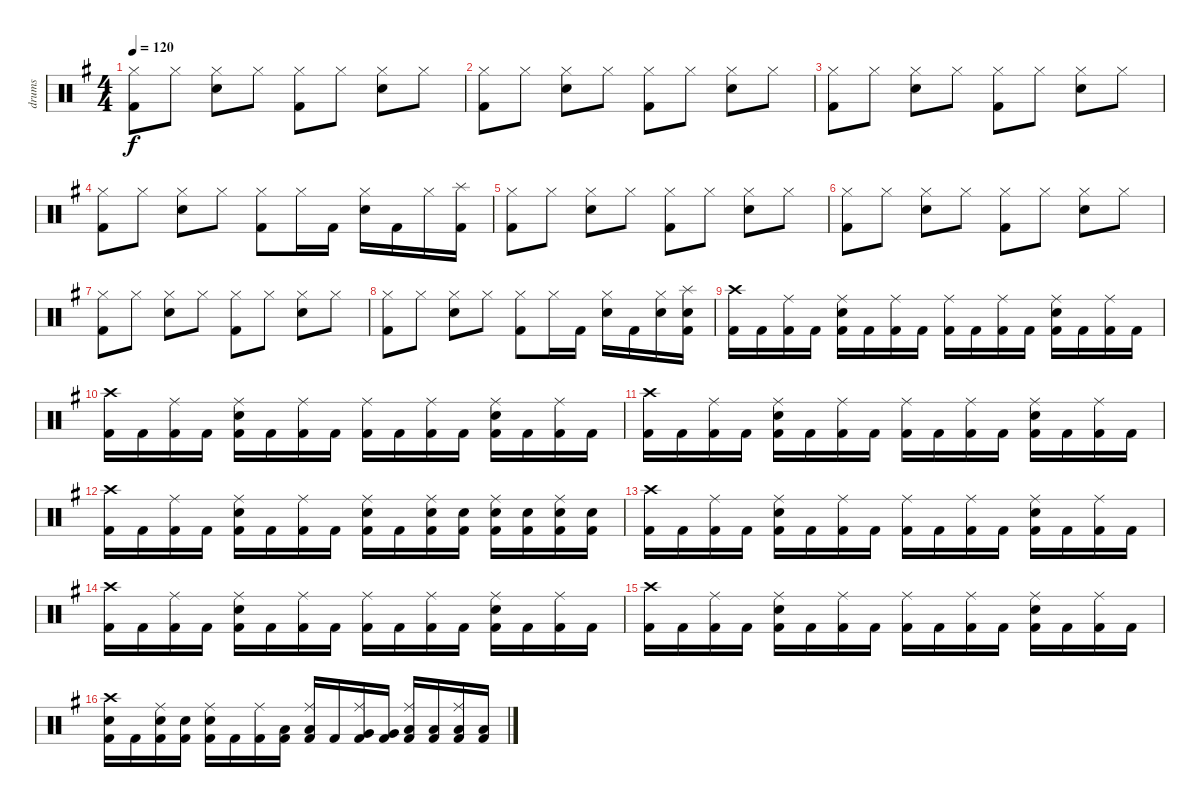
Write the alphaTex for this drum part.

\track ("drums" "drums") {instrument percussion}
\staff {score}
\articulation defaults
\ts (4 4)
\tempo 120
\clef neutral
\ks eminor
("Kick (hit) 2" "Hi-Hat (closed)").8{dy f} "Hi-Hat (closed)".8 ("Electric Snare (hit)" "Hi-Hat (closed)").8 "Hi-Hat (closed)".8 ("Kick (hit) 2" "Hi-Hat (closed)").8 "Hi-Hat (closed)".8 ("Electric Snare (hit)" "Hi-Hat (closed)").8 "Hi-Hat (closed)".8 |
("Kick (hit) 2" "Hi-Hat (closed)").8 "Hi-Hat (closed)".8 ("Electric Snare (hit)" "Hi-Hat (closed)").8 "Hi-Hat (closed)".8 ("Kick (hit) 2" "Hi-Hat (closed)").8 "Hi-Hat (closed)".8 ("Electric Snare (hit)" "Hi-Hat (closed)").8 "Hi-Hat (closed)".8 |
("Kick (hit) 2" "Hi-Hat (closed)").8 "Hi-Hat (closed)".8 ("Electric Snare (hit)" "Hi-Hat (closed)").8 "Hi-Hat (closed)".8 ("Kick (hit) 2" "Hi-Hat (closed)").8 "Hi-Hat (closed)".8 ("Electric Snare (hit)" "Hi-Hat (closed)").8 "Hi-Hat (closed)".8 |
("Kick (hit) 2" "Hi-Hat (closed)").8 "Hi-Hat (closed)".8 ("Electric Snare (hit)" "Hi-Hat (closed)").8 "Hi-Hat (closed)".8 ("Kick (hit) 2" "Hi-Hat (closed)").8 "Hi-Hat (closed)".16 "Kick (hit) 2".16 ("Electric Snare (hit)" "Hi-Hat (closed)").16 "Kick (hit) 2".16 "Hi-Hat (closed)".16 ("Kick (hit) 2" "Splash (hit)").16 |
("Kick (hit) 2" "Hi-Hat (closed)").8 "Hi-Hat (closed)".8 ("Electric Snare (hit)" "Hi-Hat (closed)").8 "Hi-Hat (closed)".8 ("Kick (hit) 2" "Hi-Hat (closed)").8 "Hi-Hat (closed)".8 ("Electric Snare (hit)" "Hi-Hat (closed)").8 "Hi-Hat (closed)".8 |
("Kick (hit) 2" "Hi-Hat (closed)").8 "Hi-Hat (closed)".8 ("Electric Snare (hit)" "Hi-Hat (closed)").8 "Hi-Hat (closed)".8 ("Kick (hit) 2" "Hi-Hat (closed)").8 "Hi-Hat (closed)".8 ("Electric Snare (hit)" "Hi-Hat (closed)").8 "Hi-Hat (closed)".8 |
("Kick (hit) 2" "Hi-Hat (closed)").8 "Hi-Hat (closed)".8 ("Electric Snare (hit)" "Hi-Hat (closed)").8 "Hi-Hat (closed)".8 ("Kick (hit) 2" "Hi-Hat (closed)").8 "Hi-Hat (closed)".8 ("Electric Snare (hit)" "Hi-Hat (closed)").8 "Hi-Hat (closed)".8 |
("Kick (hit) 2" "Hi-Hat (closed)").8 "Hi-Hat (closed)".8 ("Electric Snare (hit)" "Hi-Hat (closed)").8 "Hi-Hat (closed)".8 ("Kick (hit) 2" "Hi-Hat (closed)").8 "Hi-Hat (closed)".16 "Kick (hit) 2".16 ("Electric Snare (hit)" "Hi-Hat (closed)").16 "Kick (hit) 2".16 ("Electric Snare (hit)" "Hi-Hat (closed)").16 ("Kick (hit) 2" "Electric Snare (hit)" "Splash (hit)").16 |
("Kick (hit) 2" "Crash high (hit)").16 "Kick (hit) 2".16 ("Kick (hit) 2" "Ride (middle)").16 "Kick (hit) 2".16 ("Kick (hit) 2" "Electric Snare (hit)" "Ride (middle)").16 "Kick (hit) 2".16 ("Kick (hit) 2" "Ride (middle)").16 "Kick (hit) 2".16 ("Kick (hit) 2" "Ride (middle)").16 "Kick (hit) 2".16 ("Kick (hit) 2" "Ride (middle)").16 "Kick (hit) 2".16 ("Kick (hit) 2" "Electric Snare (hit)" "Ride (middle)").16 "Kick (hit) 2".16 ("Kick (hit) 2" "Ride (middle)").16 "Kick (hit) 2".16 |
("Kick (hit) 2" "Crash high (hit)").16 "Kick (hit) 2".16 ("Kick (hit) 2" "Ride (middle)").16 "Kick (hit) 2".16 ("Kick (hit) 2" "Electric Snare (hit)" "Ride (middle)").16 "Kick (hit) 2".16 ("Kick (hit) 2" "Ride (middle)").16 "Kick (hit) 2".16 ("Kick (hit) 2" "Ride (middle)").16 "Kick (hit) 2".16 ("Kick (hit) 2" "Ride (middle)").16 "Kick (hit) 2".16 ("Kick (hit) 2" "Electric Snare (hit)" "Ride (middle)").16 "Kick (hit) 2".16 ("Kick (hit) 2" "Ride (middle)").16 "Kick (hit) 2".16 |
("Kick (hit) 2" "Crash high (hit)").16 "Kick (hit) 2".16 ("Kick (hit) 2" "Ride (middle)").16 "Kick (hit) 2".16 ("Kick (hit) 2" "Electric Snare (hit)" "Ride (middle)").16 "Kick (hit) 2".16 ("Kick (hit) 2" "Ride (middle)").16 "Kick (hit) 2".16 ("Kick (hit) 2" "Ride (middle)").16 "Kick (hit) 2".16 ("Kick (hit) 2" "Ride (middle)").16 "Kick (hit) 2".16 ("Kick (hit) 2" "Electric Snare (hit)" "Ride (middle)").16 "Kick (hit) 2".16 ("Kick (hit) 2" "Ride (middle)").16 "Kick (hit) 2".16 |
("Kick (hit) 2" "Crash high (hit)").16 "Kick (hit) 2".16 ("Kick (hit) 2" "Ride (middle)").16 "Kick (hit) 2".16 ("Kick (hit) 2" "Electric Snare (hit)" "Ride (middle)").16 "Kick (hit) 2".16 ("Kick (hit) 2" "Ride (middle)").16 "Kick (hit) 2".16 ("Kick (hit) 2" "Electric Snare (hit)" "Ride (middle)").16 "Kick (hit) 2".16 ("Kick (hit) 2" "Electric Snare (hit)" "Ride (middle)").16 ("Kick (hit) 2" "Electric Snare (hit)").16 ("Kick (hit) 2" "Electric Snare (hit)" "Ride (middle)").16 ("Kick (hit) 2" "Electric Snare (hit)").16 ("Kick (hit) 2" "Electric Snare (hit)" "Ride (middle)").16 ("Kick (hit) 2" "Electric Snare (hit)").16 |
("Kick (hit) 2" "Crash high (hit)").16 "Kick (hit) 2".16 ("Kick (hit) 2" "Ride (middle)").16 "Kick (hit) 2".16 ("Kick (hit) 2" "Electric Snare (hit)" "Ride (middle)").16 "Kick (hit) 2".16 ("Kick (hit) 2" "Ride (middle)").16 "Kick (hit) 2".16 ("Kick (hit) 2" "Ride (middle)").16 "Kick (hit) 2".16 ("Kick (hit) 2" "Ride (middle)").16 "Kick (hit) 2".16 ("Kick (hit) 2" "Electric Snare (hit)" "Ride (middle)").16 "Kick (hit) 2".16 ("Kick (hit) 2" "Ride (middle)").16 "Kick (hit) 2".16 |
("Kick (hit) 2" "Crash high (hit)").16 "Kick (hit) 2".16 ("Kick (hit) 2" "Ride (middle)").16 "Kick (hit) 2".16 ("Kick (hit) 2" "Electric Snare (hit)" "Ride (middle)").16 "Kick (hit) 2".16 ("Kick (hit) 2" "Ride (middle)").16 "Kick (hit) 2".16 ("Kick (hit) 2" "Ride (middle)").16 "Kick (hit) 2".16 ("Kick (hit) 2" "Ride (middle)").16 "Kick (hit) 2".16 ("Kick (hit) 2" "Electric Snare (hit)" "Ride (middle)").16 "Kick (hit) 2".16 ("Kick (hit) 2" "Ride (middle)").16 "Kick (hit) 2".16 |
("Kick (hit) 2" "Crash high (hit)").16 "Kick (hit) 2".16 ("Kick (hit) 2" "Ride (middle)").16 "Kick (hit) 2".16 ("Kick (hit) 2" "Electric Snare (hit)" "Ride (middle)").16 "Kick (hit) 2".16 ("Kick (hit) 2" "Ride (middle)").16 "Kick (hit) 2".16 ("Kick (hit) 2" "Ride (middle)").16 "Kick (hit) 2".16 ("Kick (hit) 2" "Ride (middle)").16 "Kick (hit) 2".16 ("Kick (hit) 2" "Electric Snare (hit)" "Ride (middle)").16 "Kick (hit) 2".16 ("Kick (hit) 2" "Ride (middle)").16 "Kick (hit) 2".16 |
("Kick (hit) 2" "Electric Snare (hit)" "Crash high (hit)").16 "Kick (hit) 2".16 ("Kick (hit) 2" "Electric Snare (hit)" "Ride (middle)").16 ("Kick (hit) 2" "Electric Snare (hit)").16 ("Kick (hit) 2" "Electric Snare (hit)" "Ride (middle)").16 "Kick (hit) 2".16 ("Kick (hit) 2" "Ride (middle)").16 ("Kick (hit) 2" "Low Tom (hit)").16 ("Kick (hit) 2" "Low Tom (hit)" "Ride (middle)").16 "Kick (hit) 2".16 ("Kick (hit) 2" "Very Low Tom (hit)" "Ride (middle)").16 ("Kick (hit) 2" "Very Low Tom (hit)").16 ("Kick (hit) 2" "Low Floor Tom (hit)" "Ride (middle)").16 ("Kick (hit) 2" "Low Floor Tom (hit)").16 ("Kick (hit) 2" "Low Floor Tom (hit)" "Ride (middle)").16 ("Kick (hit) 2" "Low Floor Tom (hit)").16
